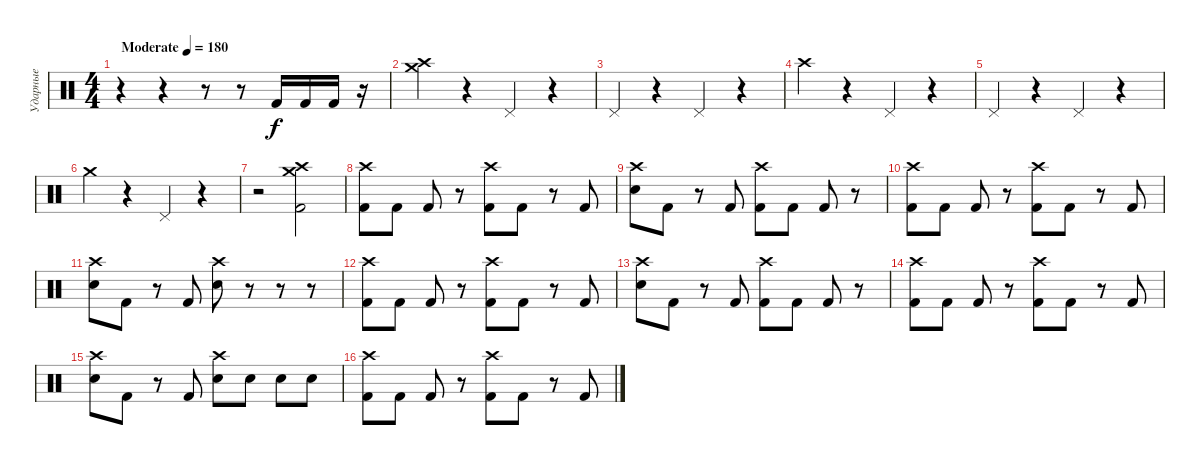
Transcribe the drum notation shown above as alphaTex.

\track ("Ударные" "Ударные") {instrument percussion}
\staff {score}
\articulation defaults
\ts (4 4)
\tempo (180 "Moderate")
\clef neutral
\ks c
r.4{dy f} r.4 r.8 r.8 "Kick (hit) 2".16 "Kick (hit) 2".16 "Kick (hit) 2".16 r.16 |
("Crash high (hit)" "Crash medium (hit)").4 r.4 "Pedal Hi-Hat (hit)".4 r.4 |
"Pedal Hi-Hat (hit)".4 r.4 "Pedal Hi-Hat (hit)".4 r.4 |
"Crash high (hit)".4 r.4 "Pedal Hi-Hat (hit)".4 r.4 |
"Pedal Hi-Hat (hit)".4 r.4 "Pedal Hi-Hat (hit)".4 r.4 |
"Crash medium (hit)".4 r.4 "Pedal Hi-Hat (hit)".4 r.4 |
r.2 ("Crash medium (hit)" "Crash high (hit)" "Kick (hit) 2").2 |
("Crash high (hit)" "Kick (hit) 2").8 "Kick (hit) 2".8 "Kick (hit) 2".8 r.8 ("Crash high (hit)" "Kick (hit) 2").8 "Kick (hit) 2".8 r.8 "Kick (hit) 2".8 |
("Crash high (hit)" "Snare (hit) 2").8 "Kick (hit) 2".8 r.8 "Kick (hit) 2".8 ("Crash high (hit)" "Kick (hit) 2").8 "Kick (hit) 2".8 "Kick (hit) 2".8 r.8 |
("Crash high (hit)" "Kick (hit) 2").8 "Kick (hit) 2".8 "Kick (hit) 2".8 r.8 ("Crash high (hit)" "Kick (hit) 2").8 "Kick (hit) 2".8 r.8 "Kick (hit) 2".8 |
("Crash high (hit)" "Snare (hit) 2").8 "Kick (hit) 2".8 r.8 "Kick (hit) 2".8 ("Crash high (hit)" "Snare (hit) 2").8 r.8 r.8 r.8 |
("Crash high (hit)" "Kick (hit) 2").8 "Kick (hit) 2".8 "Kick (hit) 2".8 r.8 ("Crash high (hit)" "Kick (hit) 2").8 "Kick (hit) 2".8 r.8 "Kick (hit) 2".8 |
("Crash high (hit)" "Snare (hit) 2").8 "Kick (hit) 2".8 r.8 "Kick (hit) 2".8 ("Crash high (hit)" "Kick (hit) 2").8 "Kick (hit) 2".8 "Kick (hit) 2".8 r.8 |
("Crash high (hit)" "Kick (hit) 2").8 "Kick (hit) 2".8 "Kick (hit) 2".8 r.8 ("Crash high (hit)" "Kick (hit) 2").8 "Kick (hit) 2".8 r.8 "Kick (hit) 2".8 |
("Crash high (hit)" "Snare (hit) 2").8 "Kick (hit) 2".8 r.8 "Kick (hit) 2".8 ("Crash high (hit)" "Snare (hit) 2").8 "Snare (hit) 2".8 "Snare (hit) 2".8 "Snare (hit) 2".8 |
("Crash high (hit)" "Kick (hit) 2").8 "Kick (hit) 2".8 "Kick (hit) 2".8 r.8 ("Crash high (hit)" "Kick (hit) 2").8 "Kick (hit) 2".8 r.8 "Kick (hit) 2".8
